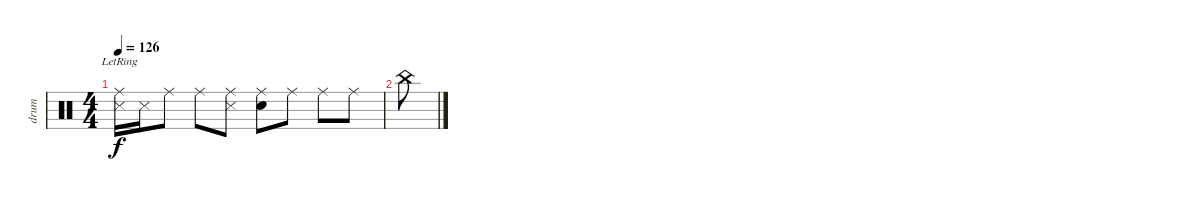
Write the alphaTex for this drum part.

\track ("drum" "drum") {instrument percussion}
\staff {score}
\articulation defaults
\ts (4 4)
\tempo 126
\clef neutral
\ks c
("Ride (middle)"{lr} "Metronome (hit)").16{dy f} "Metronome (hit)".16 "Ride (middle)".8 "Ride (middle)".8 ("Ride (middle)" "Metronome (hit)").8 ("Ride (middle)" "Snare (hit) 2").8 "Ride (middle)".8 "Ride (middle)".8 "Ride (middle)".8 |
"China (hit)".8
